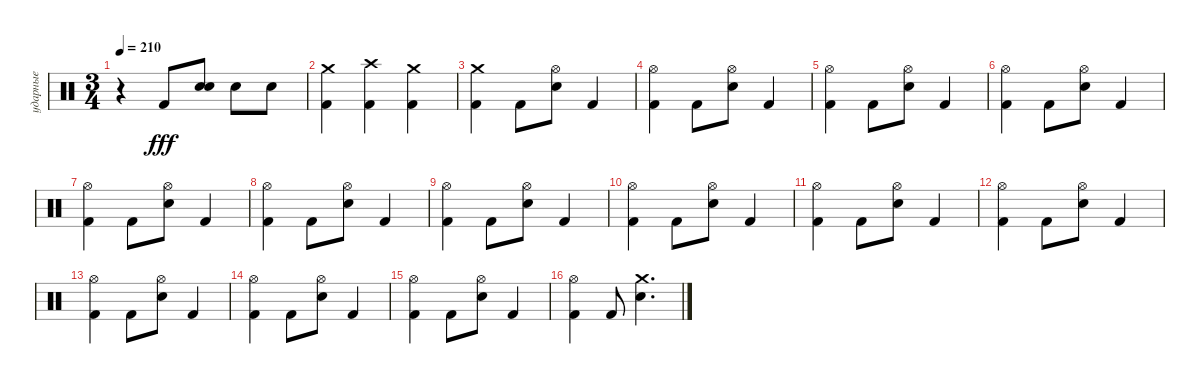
\track ("ударные" "ударные") {instrument percussion}
\staff {score}
\articulation defaults
\ts (3 4)
\tempo 210
\clef neutral
\ks c
r.4{dy fff} "Kick (hit) 2".8 ("Snare (hit) 2" "Snare (hit) 2").8{bd 120} "Snare (hit) 2".8 "Snare (hit) 2".8 |
("Crash medium (hit)" "Kick (hit) 2").4 ("Crash high (hit)" "Kick (hit) 2").4 ("Crash medium (hit)" "Kick (hit) 2").4 |
("Crash medium (hit)" "Kick (hit) 2").4 "Kick (hit) 2".8 ("Hi-Hat (open)" "Snare (hit) 2").8 "Kick (hit) 2".4 |
("Hi-Hat (open)" "Kick (hit) 2").4 "Kick (hit) 2".8 ("Hi-Hat (open)" "Snare (hit) 2").8 "Kick (hit) 2".4 |
("Hi-Hat (open)" "Kick (hit) 2").4 "Kick (hit) 2".8 ("Hi-Hat (open)" "Snare (hit) 2").8 "Kick (hit) 2".4 |
("Hi-Hat (open)" "Kick (hit) 2").4 "Kick (hit) 2".8 ("Hi-Hat (open)" "Snare (hit) 2").8 "Kick (hit) 2".4 |
("Hi-Hat (open)" "Kick (hit) 2").4 "Kick (hit) 2".8 ("Hi-Hat (open)" "Snare (hit) 2").8 "Kick (hit) 2".4 |
("Hi-Hat (open)" "Kick (hit) 2").4 "Kick (hit) 2".8 ("Hi-Hat (open)" "Snare (hit) 2").8 "Kick (hit) 2".4 |
("Hi-Hat (open)" "Kick (hit) 2").4 "Kick (hit) 2".8 ("Hi-Hat (open)" "Snare (hit) 2").8 "Kick (hit) 2".4 |
("Hi-Hat (open)" "Kick (hit) 2").4 "Kick (hit) 2".8 ("Hi-Hat (open)" "Snare (hit) 2").8 "Kick (hit) 2".4 |
("Hi-Hat (open)" "Kick (hit) 2").4 "Kick (hit) 2".8 ("Hi-Hat (open)" "Snare (hit) 2").8 "Kick (hit) 2".4 |
("Hi-Hat (open)" "Kick (hit) 2").4 "Kick (hit) 2".8 ("Hi-Hat (open)" "Snare (hit) 2").8 "Kick (hit) 2".4 |
("Hi-Hat (open)" "Kick (hit) 2").4 "Kick (hit) 2".8 ("Hi-Hat (open)" "Snare (hit) 2").8 "Kick (hit) 2".4 |
("Hi-Hat (open)" "Kick (hit) 2").4 "Kick (hit) 2".8 ("Hi-Hat (open)" "Snare (hit) 2").8 "Kick (hit) 2".4 |
("Hi-Hat (open)" "Kick (hit) 2").4 "Kick (hit) 2".8 ("Hi-Hat (open)" "Snare (hit) 2").8 "Kick (hit) 2".4 |
("Hi-Hat (open)" "Kick (hit) 2").4 "Kick (hit) 2".8 ("Crash medium (hit)" "Snare (hit) 2").4{d}
